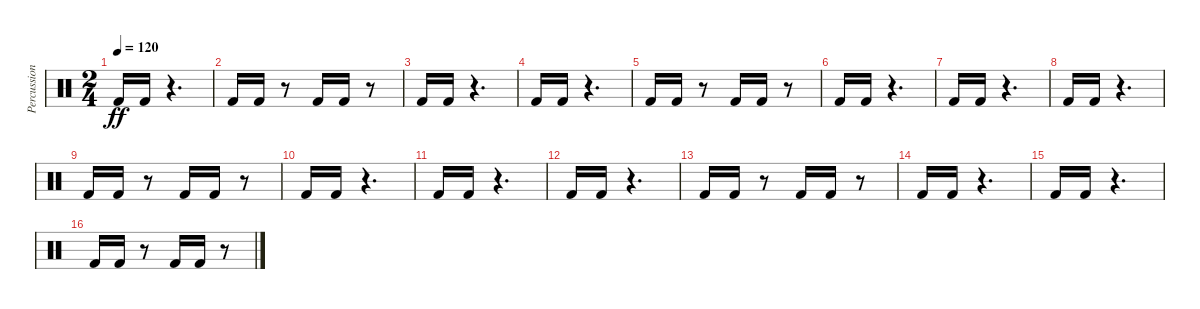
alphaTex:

\track ("Percussion" "Percussion") {instrument percussion}
\staff {score}
\articulation defaults
\ts (2 4)
\tempo 120
\clef neutral
\ks c "Kick (hit) 2".16{dy ff} "Kick (hit) 2".16
r.4{d} |
"Kick (hit) 2".16 "Kick (hit) 2".16 r.8 "Kick (hit) 2".16 "Kick (hit) 2".16 r.8 |
"Kick (hit) 2".16 "Kick (hit) 2".16 r.4{d} |
"Kick (hit) 2".16 "Kick (hit) 2".16 r.4{d} |
"Kick (hit) 2".16 "Kick (hit) 2".16 r.8 "Kick (hit) 2".16 "Kick (hit) 2".16 r.8 |
"Kick (hit) 2".16 "Kick (hit) 2".16 r.4{d} |
"Kick (hit) 2".16 "Kick (hit) 2".16 r.4{d} |
"Kick (hit) 2".16 "Kick (hit) 2".16 r.4{d} |
"Kick (hit) 2".16 "Kick (hit) 2".16 r.8 "Kick (hit) 2".16 "Kick (hit) 2".16 r.8 |
"Kick (hit) 2".16 "Kick (hit) 2".16 r.4{d} |
"Kick (hit) 2".16 "Kick (hit) 2".16 r.4{d} |
"Kick (hit) 2".16 "Kick (hit) 2".16 r.4{d} |
"Kick (hit) 2".16 "Kick (hit) 2".16 r.8 "Kick (hit) 2".16 "Kick (hit) 2".16 r.8 |
"Kick (hit) 2".16 "Kick (hit) 2".16 r.4{d} |
"Kick (hit) 2".16 "Kick (hit) 2".16 r.4{d} |
"Kick (hit) 2".16 "Kick (hit) 2".16 r.8 "Kick (hit) 2".16 "Kick (hit) 2".16 r.8
